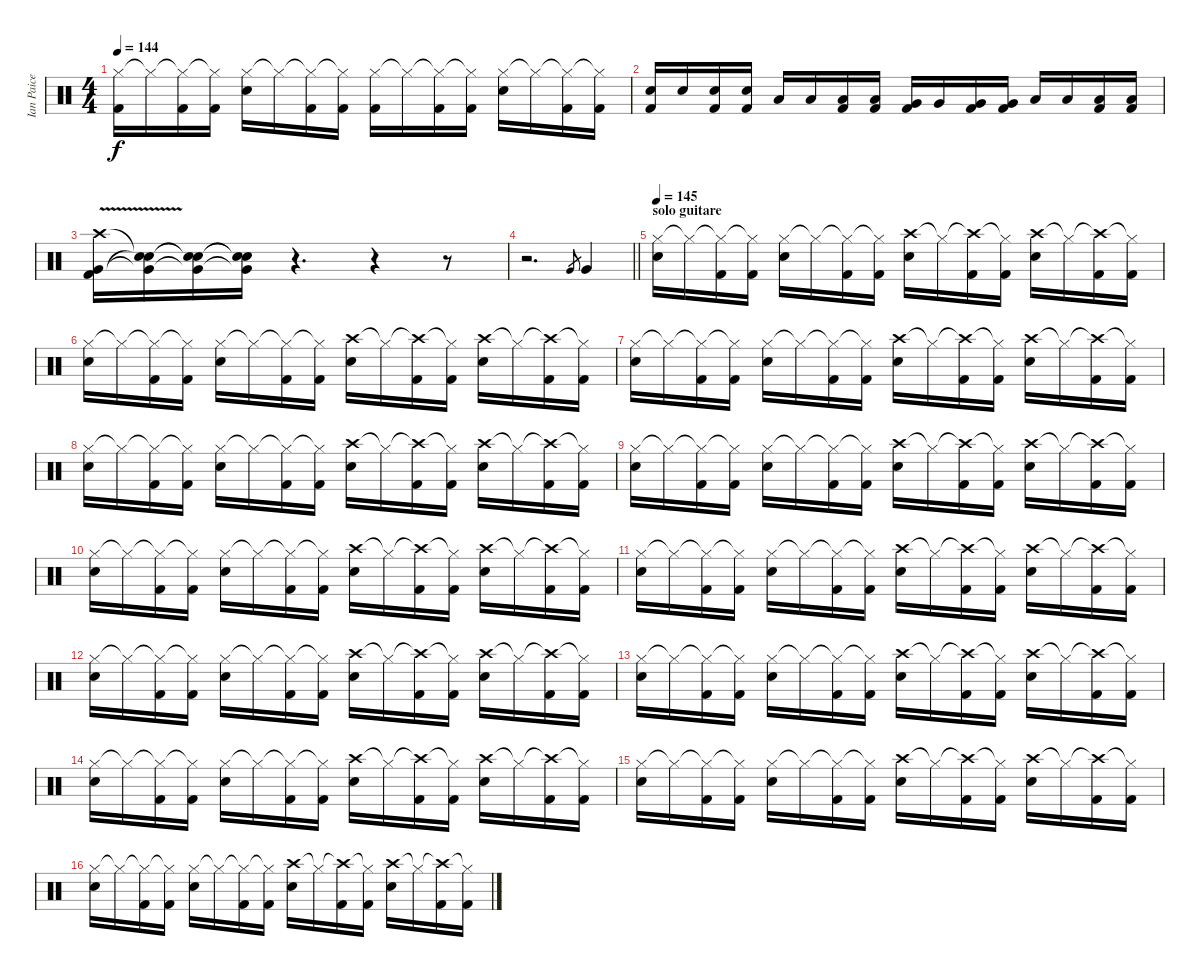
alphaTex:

\track ("Ian Paice" "Ian Paice") {instrument percussion}
\staff {score}
\articulation defaults
\ts (4 4)
\tempo 144
\clef neutral
\ks c
("Hi-Hat (closed)" "Kick (hit) 2").16{dy f} "Hi-Hat (closed)"{t}.16 ("Hi-Hat (closed)"{t} "Kick (hit) 2").16 ("Hi-Hat (closed)"{t} "Kick (hit) 2").16 ("Hi-Hat (closed)" "Snare (hit) 2").16 "Hi-Hat (closed)"{t}.16 ("Hi-Hat (closed)"{t} "Kick (hit) 2").16 ("Hi-Hat (closed)"{t} "Kick (hit) 2").16 ("Hi-Hat (closed)" "Kick (hit) 2").16 "Hi-Hat (closed)"{t}.16 ("Hi-Hat (closed)"{t} "Kick (hit) 2").16 ("Hi-Hat (closed)"{t} "Kick (hit) 2").16 ("Hi-Hat (closed)" "Snare (hit) 2").16 "Hi-Hat (closed)"{t}.16 ("Hi-Hat (closed)"{t} "Kick (hit) 2").16 ("Hi-Hat (closed)"{t} "Kick (hit) 2").16 |
("Snare (hit) 2" "Kick (hit) 2").16 "Snare (hit) 2".16 ("Snare (hit) 2" "Kick (hit) 2").16 ("Snare (hit) 2" "Kick (hit) 2").16 "Low Tom (hit)".16 "Low Tom (hit)".16 ("Low Tom (hit)" "Kick (hit) 2").16 ("Low Tom (hit)" "Kick (hit) 2").16 ("Very Low Tom (hit)" "Kick (hit) 2").16 "Very Low Tom (hit)".16 ("Very Low Tom (hit)" "Kick (hit) 2").16 ("Very Low Tom (hit)" "Kick (hit) 2").16 "Low Floor Tom (hit)".16 "Low Floor Tom (hit)".16 ("Low Floor Tom (hit)" "Kick (hit) 2").16 ("Low Floor Tom (hit)" "Kick (hit) 2").16 |
("Crash high (hit)"{v} "Very Low Tom (hit)"{v} "Kick (hit) 2").16 ("Snare (hit)"{t} "Very Low Tom (hit)"{t} "Snare (hit)"{t}).16 ("Snare (hit)"{t} "Very Low Tom (hit)"{t} "Snare (hit)"{t}).16 ("Snare (hit)"{t} "Very Low Tom (hit)"{t} "Snare (hit)"{t}).16 r.4{d} r.4 r.8 |
\barLineRight lightlight
r.2{d} "Very Low Tom (hit)".8{gr} "Very Low Tom (hit)".4 |
\section ("" "solo guitare")
\tempo 145
("Hi-Hat (closed)" "Snare (hit) 2").16 "Hi-Hat (closed)"{t}.16 ("Hi-Hat (closed)"{t} "Kick (hit) 2").16 ("Hi-Hat (closed)"{t} "Kick (hit) 2").16 ("Hi-Hat (closed)" "Snare (hit) 2").16 "Hi-Hat (closed)"{t}.16 ("Hi-Hat (closed)"{t} "Kick (hit) 2").16 ("Hi-Hat (closed)"{t} "Kick (hit) 2").16 ("Crash high (hit)" "Snare (hit) 2").16 "Hi-Hat (closed)"{t}.16 ("Crash high (hit)"{t} "Kick (hit) 2").16 ("Hi-Hat (closed)"{t} "Kick (hit) 2").16 ("Crash high (hit)" "Snare (hit) 2").16 "Hi-Hat (closed)"{t}.16 ("Crash high (hit)"{t} "Kick (hit) 2").16 ("Hi-Hat (closed)"{t} "Kick (hit) 2").16 |
("Hi-Hat (closed)" "Snare (hit) 2").16 "Hi-Hat (closed)"{t}.16 ("Hi-Hat (closed)"{t} "Kick (hit) 2").16 ("Hi-Hat (closed)"{t} "Kick (hit) 2").16 ("Hi-Hat (closed)" "Snare (hit) 2").16 "Hi-Hat (closed)"{t}.16 ("Hi-Hat (closed)"{t} "Kick (hit) 2").16 ("Hi-Hat (closed)"{t} "Kick (hit) 2").16 ("Crash high (hit)" "Snare (hit) 2").16 "Hi-Hat (closed)"{t}.16 ("Crash high (hit)"{t} "Kick (hit) 2").16 ("Hi-Hat (closed)"{t} "Kick (hit) 2").16 ("Crash high (hit)" "Snare (hit) 2").16 "Hi-Hat (closed)"{t}.16 ("Crash high (hit)"{t} "Kick (hit) 2").16 ("Hi-Hat (closed)"{t} "Kick (hit) 2").16 |
("Hi-Hat (closed)" "Snare (hit) 2").16 "Hi-Hat (closed)"{t}.16 ("Hi-Hat (closed)"{t} "Kick (hit) 2").16 ("Hi-Hat (closed)"{t} "Kick (hit) 2").16 ("Hi-Hat (closed)" "Snare (hit) 2").16 "Hi-Hat (closed)"{t}.16 ("Hi-Hat (closed)"{t} "Kick (hit) 2").16 ("Hi-Hat (closed)"{t} "Kick (hit) 2").16 ("Crash high (hit)" "Snare (hit) 2").16 "Hi-Hat (closed)"{t}.16 ("Crash high (hit)"{t} "Kick (hit) 2").16 ("Hi-Hat (closed)"{t} "Kick (hit) 2").16 ("Crash high (hit)" "Snare (hit) 2").16 "Hi-Hat (closed)"{t}.16 ("Crash high (hit)"{t} "Kick (hit) 2").16 ("Hi-Hat (closed)"{t} "Kick (hit) 2").16 |
("Hi-Hat (closed)" "Snare (hit) 2").16 "Hi-Hat (closed)"{t}.16 ("Hi-Hat (closed)"{t} "Kick (hit) 2").16 ("Hi-Hat (closed)"{t} "Kick (hit) 2").16 ("Hi-Hat (closed)" "Snare (hit) 2").16 "Hi-Hat (closed)"{t}.16 ("Hi-Hat (closed)"{t} "Kick (hit) 2").16 ("Hi-Hat (closed)"{t} "Kick (hit) 2").16 ("Crash high (hit)" "Snare (hit) 2").16 "Hi-Hat (closed)"{t}.16 ("Crash high (hit)"{t} "Kick (hit) 2").16 ("Hi-Hat (closed)"{t} "Kick (hit) 2").16 ("Crash high (hit)" "Snare (hit) 2").16 "Hi-Hat (closed)"{t}.16 ("Crash high (hit)"{t} "Kick (hit) 2").16 ("Hi-Hat (closed)"{t} "Kick (hit) 2").16 |
("Hi-Hat (closed)" "Snare (hit) 2").16 "Hi-Hat (closed)"{t}.16 ("Hi-Hat (closed)"{t} "Kick (hit) 2").16 ("Hi-Hat (closed)"{t} "Kick (hit) 2").16 ("Hi-Hat (closed)" "Snare (hit) 2").16 "Hi-Hat (closed)"{t}.16 ("Hi-Hat (closed)"{t} "Kick (hit) 2").16 ("Hi-Hat (closed)"{t} "Kick (hit) 2").16 ("Crash high (hit)" "Snare (hit) 2").16 "Hi-Hat (closed)"{t}.16 ("Crash high (hit)"{t} "Kick (hit) 2").16 ("Hi-Hat (closed)"{t} "Kick (hit) 2").16 ("Crash high (hit)" "Snare (hit) 2").16 "Hi-Hat (closed)"{t}.16 ("Crash high (hit)"{t} "Kick (hit) 2").16 ("Hi-Hat (closed)"{t} "Kick (hit) 2").16 |
("Hi-Hat (closed)" "Snare (hit) 2").16 "Hi-Hat (closed)"{t}.16 ("Hi-Hat (closed)"{t} "Kick (hit) 2").16 ("Hi-Hat (closed)"{t} "Kick (hit) 2").16 ("Hi-Hat (closed)" "Snare (hit) 2").16 "Hi-Hat (closed)"{t}.16 ("Hi-Hat (closed)"{t} "Kick (hit) 2").16 ("Hi-Hat (closed)"{t} "Kick (hit) 2").16 ("Crash high (hit)" "Snare (hit) 2").16 "Hi-Hat (closed)"{t}.16 ("Crash high (hit)"{t} "Kick (hit) 2").16 ("Hi-Hat (closed)"{t} "Kick (hit) 2").16 ("Crash high (hit)" "Snare (hit) 2").16 "Hi-Hat (closed)"{t}.16 ("Crash high (hit)"{t} "Kick (hit) 2").16 ("Hi-Hat (closed)"{t} "Kick (hit) 2").16 |
("Hi-Hat (closed)" "Snare (hit) 2").16 "Hi-Hat (closed)"{t}.16 ("Hi-Hat (closed)"{t} "Kick (hit) 2").16 ("Hi-Hat (closed)"{t} "Kick (hit) 2").16 ("Hi-Hat (closed)" "Snare (hit) 2").16 "Hi-Hat (closed)"{t}.16 ("Hi-Hat (closed)"{t} "Kick (hit) 2").16 ("Hi-Hat (closed)"{t} "Kick (hit) 2").16 ("Crash high (hit)" "Snare (hit) 2").16 "Hi-Hat (closed)"{t}.16 ("Crash high (hit)"{t} "Kick (hit) 2").16 ("Hi-Hat (closed)"{t} "Kick (hit) 2").16 ("Crash high (hit)" "Snare (hit) 2").16 "Hi-Hat (closed)"{t}.16 ("Crash high (hit)"{t} "Kick (hit) 2").16 ("Hi-Hat (closed)"{t} "Kick (hit) 2").16 |
("Hi-Hat (closed)" "Snare (hit) 2").16 "Hi-Hat (closed)"{t}.16 ("Hi-Hat (closed)"{t} "Kick (hit) 2").16 ("Hi-Hat (closed)"{t} "Kick (hit) 2").16 ("Hi-Hat (closed)" "Snare (hit) 2").16 "Hi-Hat (closed)"{t}.16 ("Hi-Hat (closed)"{t} "Kick (hit) 2").16 ("Hi-Hat (closed)"{t} "Kick (hit) 2").16 ("Crash high (hit)" "Snare (hit) 2").16 "Hi-Hat (closed)"{t}.16 ("Crash high (hit)"{t} "Kick (hit) 2").16 ("Hi-Hat (closed)"{t} "Kick (hit) 2").16 ("Crash high (hit)" "Snare (hit) 2").16 "Hi-Hat (closed)"{t}.16 ("Crash high (hit)"{t} "Kick (hit) 2").16 ("Hi-Hat (closed)"{t} "Kick (hit) 2").16 |
("Hi-Hat (closed)" "Snare (hit) 2").16 "Hi-Hat (closed)"{t}.16 ("Hi-Hat (closed)"{t} "Kick (hit) 2").16 ("Hi-Hat (closed)"{t} "Kick (hit) 2").16 ("Hi-Hat (closed)" "Snare (hit) 2").16 "Hi-Hat (closed)"{t}.16 ("Hi-Hat (closed)"{t} "Kick (hit) 2").16 ("Hi-Hat (closed)"{t} "Kick (hit) 2").16 ("Crash high (hit)" "Snare (hit) 2").16 "Hi-Hat (closed)"{t}.16 ("Crash high (hit)"{t} "Kick (hit) 2").16 ("Hi-Hat (closed)"{t} "Kick (hit) 2").16 ("Crash high (hit)" "Snare (hit) 2").16 "Hi-Hat (closed)"{t}.16 ("Crash high (hit)"{t} "Kick (hit) 2").16 ("Hi-Hat (closed)"{t} "Kick (hit) 2").16 |
("Hi-Hat (closed)" "Snare (hit) 2").16 "Hi-Hat (closed)"{t}.16 ("Hi-Hat (closed)"{t} "Kick (hit) 2").16 ("Hi-Hat (closed)"{t} "Kick (hit) 2").16 ("Hi-Hat (closed)" "Snare (hit) 2").16 "Hi-Hat (closed)"{t}.16 ("Hi-Hat (closed)"{t} "Kick (hit) 2").16 ("Hi-Hat (closed)"{t} "Kick (hit) 2").16 ("Crash high (hit)" "Snare (hit) 2").16 "Hi-Hat (closed)"{t}.16 ("Crash high (hit)"{t} "Kick (hit) 2").16 ("Hi-Hat (closed)"{t} "Kick (hit) 2").16 ("Crash high (hit)" "Snare (hit) 2").16 "Hi-Hat (closed)"{t}.16 ("Crash high (hit)"{t} "Kick (hit) 2").16 ("Hi-Hat (closed)"{t} "Kick (hit) 2").16 |
("Hi-Hat (closed)" "Snare (hit) 2").16 "Hi-Hat (closed)"{t}.16 ("Hi-Hat (closed)"{t} "Kick (hit) 2").16 ("Hi-Hat (closed)"{t} "Kick (hit) 2").16 ("Hi-Hat (closed)" "Snare (hit) 2").16 "Hi-Hat (closed)"{t}.16 ("Hi-Hat (closed)"{t} "Kick (hit) 2").16 ("Hi-Hat (closed)"{t} "Kick (hit) 2").16 ("Crash high (hit)" "Snare (hit) 2").16 "Hi-Hat (closed)"{t}.16 ("Crash high (hit)"{t} "Kick (hit) 2").16 ("Hi-Hat (closed)"{t} "Kick (hit) 2").16 ("Crash high (hit)" "Snare (hit) 2").16 "Hi-Hat (closed)"{t}.16 ("Crash high (hit)"{t} "Kick (hit) 2").16 ("Hi-Hat (closed)"{t} "Kick (hit) 2").16 |
("Hi-Hat (closed)" "Snare (hit) 2").16 "Hi-Hat (closed)"{t}.16 ("Hi-Hat (closed)"{t} "Kick (hit) 2").16 ("Hi-Hat (closed)"{t} "Kick (hit) 2").16 ("Hi-Hat (closed)" "Snare (hit) 2").16 "Hi-Hat (closed)"{t}.16 ("Hi-Hat (closed)"{t} "Kick (hit) 2").16 ("Hi-Hat (closed)"{t} "Kick (hit) 2").16 ("Crash high (hit)" "Snare (hit) 2").16 "Hi-Hat (closed)"{t}.16 ("Crash high (hit)"{t} "Kick (hit) 2").16 ("Hi-Hat (closed)"{t} "Kick (hit) 2").16 ("Crash high (hit)" "Snare (hit) 2").16 "Hi-Hat (closed)"{t}.16 ("Crash high (hit)"{t} "Kick (hit) 2").16 ("Hi-Hat (closed)"{t} "Kick (hit) 2").16
